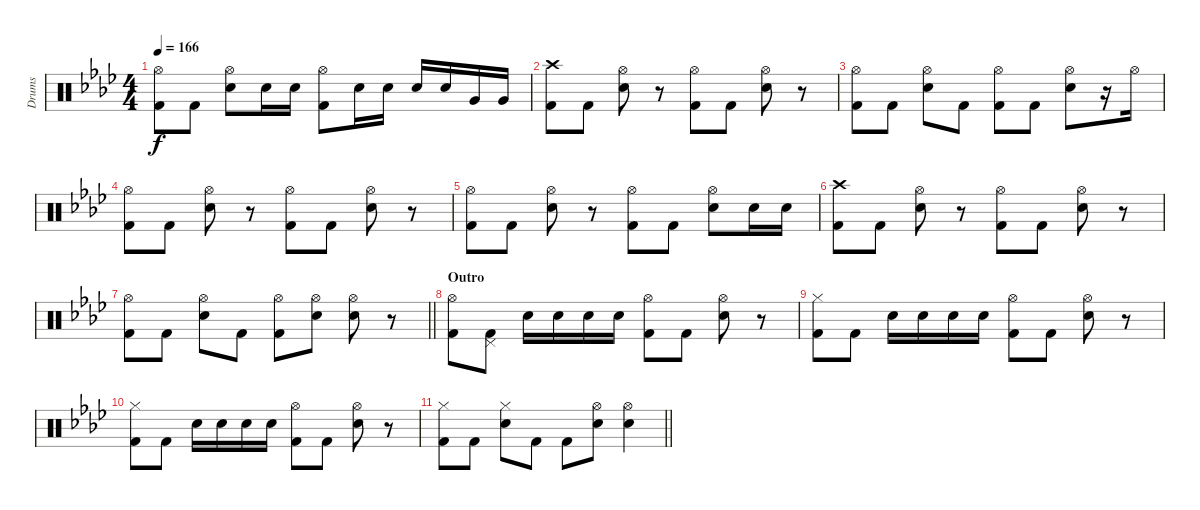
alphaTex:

\track ("Drums" "Drums") {instrument percussion}
\staff {score}
\articulation defaults
\ts (4 4)
\tempo 166
\clef neutral
\ks ab
("Hi-Hat (open)" "Kick (hit) 2").8{dy f} "Kick (hit) 2".8 ("Hi-Hat (open)" "Electric Snare (hit)").8 "Electric Snare (hit)".16 "Electric Snare (hit)".16 ("Hi-Hat (open)" "Kick (hit) 2").8 "Electric Snare (hit)".16 "Electric Snare (hit)".16 "Electric Snare (hit)".16 "Electric Snare (hit)".16 "Very Low Tom (hit)".16 "Very Low Tom (hit)".16 |
("Crash high (hit)" "Kick (hit) 2").8 "Kick (hit) 2".8 ("Hi-Hat (open)" "Electric Snare (hit)").8 r.8 ("Hi-Hat (open)" "Kick (hit) 2").8 "Kick (hit) 2".8 ("Hi-Hat (open)" "Electric Snare (hit)").8 r.8 |
("Hi-Hat (open)" "Kick (hit) 2").8 "Kick (hit) 2".8 ("Hi-Hat (open)" "Electric Snare (hit)").8 "Kick (hit) 2".8 ("Hi-Hat (open)" "Kick (hit) 2").8 "Kick (hit) 2".8 ("Hi-Hat (open)" "Electric Snare (hit)").8 r.16 "Hi-Hat (open)".16 |
("Hi-Hat (open)" "Kick (hit) 2").8 "Kick (hit) 2".8 ("Hi-Hat (open)" "Electric Snare (hit)").8 r.8 ("Hi-Hat (open)" "Kick (hit) 2").8 "Kick (hit) 2".8 ("Hi-Hat (open)" "Electric Snare (hit)").8 r.8 |
("Hi-Hat (open)" "Kick (hit) 2").8 "Kick (hit) 2".8 ("Hi-Hat (open)" "Electric Snare (hit)").8 r.8 ("Hi-Hat (open)" "Kick (hit) 2").8 "Kick (hit) 2".8 ("Hi-Hat (open)" "Electric Snare (hit)").8 "Electric Snare (hit)".16 "Electric Snare (hit)".16 |
("Crash high (hit)" "Kick (hit) 2").8 "Kick (hit) 2".8 ("Hi-Hat (open)" "Electric Snare (hit)").8 r.8 ("Hi-Hat (open)" "Kick (hit) 2").8 "Kick (hit) 2".8 ("Hi-Hat (open)" "Electric Snare (hit)").8 r.8 |
\barLineRight lightlight
("Hi-Hat (open)" "Kick (hit) 2").8 "Kick (hit) 2".8 ("Hi-Hat (open)" "Electric Snare (hit)").8 "Kick (hit) 2".8 ("Hi-Hat (open)" "Kick (hit) 2").8 ("Hi-Hat (open)" "Electric Snare (hit)").8 ("Hi-Hat (open)" "Electric Snare (hit)").8 r.8 |
\section ("" "Outro")
("Hi-Hat (open)" "Kick (hit) 2").8 ("Pedal Hi-Hat (hit)" "Kick (hit) 2").8 "Electric Snare (hit)".16 "Electric Snare (hit)".16 "Electric Snare (hit)".16 "Electric Snare (hit)".16 ("Hi-Hat (open)" "Kick (hit) 2").8 "Kick (hit) 2".8 ("Hi-Hat (open)" "Electric Snare (hit)").8 r.8 |
("Hi-Hat (closed)" "Kick (hit) 2").8 "Kick (hit) 2".8 "Electric Snare (hit)".16 "Electric Snare (hit)".16 "Electric Snare (hit)".16 "Electric Snare (hit)".16 ("Hi-Hat (open)" "Kick (hit) 2").8 "Kick (hit) 2".8 ("Hi-Hat (open)" "Electric Snare (hit)").8 r.8 |
("Hi-Hat (closed)" "Kick (hit) 2").8 "Kick (hit) 2".8 "Electric Snare (hit)".16 "Electric Snare (hit)".16 "Electric Snare (hit)".16 "Electric Snare (hit)".16 ("Hi-Hat (open)" "Kick (hit) 2").8 "Kick (hit) 2".8 ("Hi-Hat (open)" "Electric Snare (hit)").8 r.8 |
\barLineRight lightlight
("Hi-Hat (closed)" "Kick (hit) 2").8 "Kick (hit) 2".8 ("Hi-Hat (closed)" "Electric Snare (hit)").8 "Kick (hit) 2".8 "Kick (hit) 2".8 ("Hi-Hat (open)" "Electric Snare (hit)").8 ("Hi-Hat (open)" "Electric Snare (hit)").4
